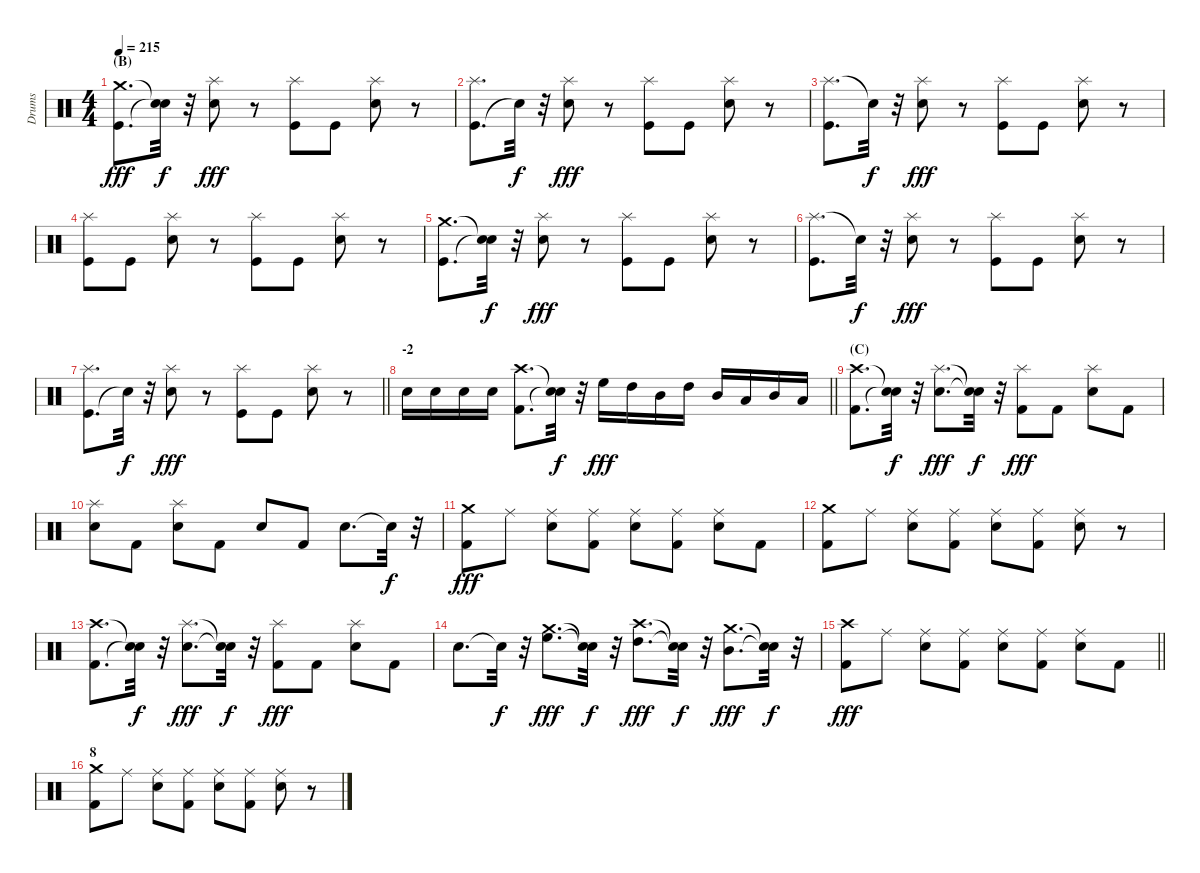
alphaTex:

\track ("Drums" "Drums") {instrument percussion}
\staff {score}
\articulation defaults
\ts (4 4)
\section ("" "(B)")
\tempo 215
\clef neutral
\ks c
("Kick (hit)" "Crash medium (hit)").8{d dy fff} ("Snare (hit)"{t} "Snare (hit)"{t}).32{dy f} r.32 ("Electric Snare (hit)" "Splash (hit)").8{dy fff} r.8 ("Splash (hit)" "Kick (hit)").8 "Kick (hit)".8 ("Electric Snare (hit)" "Splash (hit)").8 r.8 |
("Kick (hit)" "Splash (hit)").8{d} "Snare (hit)"{t}.32{dy f} r.32 ("Splash (hit)" "Electric Snare (hit)").8{dy fff} r.8 ("Kick (hit)" "Splash (hit)").8 "Kick (hit)".8 ("Splash (hit)" "Electric Snare (hit)").8 r.8 |
("Splash (hit)" "Kick (hit)").8{d} "Snare (hit)"{t}.32{dy f} r.32 ("Splash (hit)" "Electric Snare (hit)").8{dy fff} r.8 ("Kick (hit)" "Splash (hit)").8 "Kick (hit)".8 ("Splash (hit)" "Electric Snare (hit)").8 r.8 |
("Splash (hit)" "Kick (hit)").8 "Kick (hit)".8 ("Electric Snare (hit)" "Splash (hit)").8 r.8 ("Splash (hit)" "Kick (hit)").8 "Kick (hit)".8 ("Electric Snare (hit)" "Splash (hit)").8 r.8 |
("Crash medium (hit)" "Kick (hit)").8{d} ("Snare (hit)"{t} "Snare (hit)"{t}).32{dy f} r.32 ("Electric Snare (hit)" "Splash (hit)").8{dy fff} r.8 ("Kick (hit)" "Splash (hit)").8 "Kick (hit)".8 ("Splash (hit)" "Electric Snare (hit)").8 r.8 |
("Splash (hit)" "Kick (hit)").8{d} "Snare (hit)"{t}.32{dy f} r.32 ("Splash (hit)" "Electric Snare (hit)").8{dy fff} r.8 ("Kick (hit)" "Splash (hit)").8 "Kick (hit)".8 ("Electric Snare (hit)" "Splash (hit)").8 r.8 |
\barLineRight lightlight
("Kick (hit)" "Splash (hit)").8{d} "Snare (hit)"{t}.32{dy f} r.32 ("Electric Snare (hit)" "Splash (hit)").8{dy fff} r.8 ("Kick (hit)" "Splash (hit)").8 "Kick (hit)".8 ("Electric Snare (hit)" "Splash (hit)").8 r.8 |
\section ("" "-2")
\barLineRight lightlight "Electric Snare (hit)".16 "Electric Snare (hit)".16 "Electric Snare (hit)".16 "Electric Snare (hit)".16
("Crash high (hit)" "Kick (hit) 2").8{d} ("Snare (hit)"{t} "Snare (hit)"{t}).32{dy f} r.32 "High Floor Tom (hit)".16{dy fff} "High Tom (hit)".16 "Mid Tom (hit)".16 "High Tom (hit)".16 "Mid Tom (hit)".16 "Low Tom (hit)".16 "Mid Tom (hit)".16 "Low Tom (hit)".16 |
\section ("" "(C)")
("Crash high (hit)" "Kick (hit) 2").8{d} ("Snare (hit)"{t} "Snare (hit)"{t}).32{dy f} r.32 ("Electric Snare (hit)" "Splash (hit)").8{d dy fff} ("Snare (hit)"{t} "Snare (hit)"{t}).32{dy f} r.32 ("Splash (hit)" "Kick (hit) 2").8{dy fff} "Kick (hit) 2".8 ("Electric Snare (hit)" "Splash (hit)").8 "Kick (hit) 2".8 |
("Electric Snare (hit)" "Splash (hit)").8 "Kick (hit) 2".8 ("Electric Snare (hit)" "Splash (hit)").8 "Kick (hit) 2".8 "Electric Snare (hit)".8 "Kick (hit) 2".8 "Electric Snare (hit)".8{d} "Snare (hit)"{t}.32{dy f} r.32 |
("Kick (hit) 2" "Crash medium (hit)").8{dy fff} "Ride (middle)".8 ("Electric Snare (hit)" "Ride (middle)").8 ("Kick (hit) 2" "Ride (middle)").8 ("Electric Snare (hit)" "Ride (middle)").8 ("Kick (hit) 2" "Ride (middle)").8 ("Electric Snare (hit)" "Ride (middle)").8 "Kick (hit) 2".8 |
("Kick (hit) 2" "Crash medium (hit)").8 "Ride (middle)".8 ("Electric Snare (hit)" "Ride (middle)").8 ("Kick (hit) 2" "Ride (middle)").8 ("Electric Snare (hit)" "Ride (middle)").8 ("Kick (hit) 2" "Ride (middle)").8 ("Electric Snare (hit)" "Ride (middle)").8 r.8 |
("Crash high (hit)" "Kick (hit) 2").8{d} ("Snare (hit)"{t} "Snare (hit)"{t}).32{dy f} r.32 ("Electric Snare (hit)" "Splash (hit)").8{d dy fff} ("Snare (hit)"{t} "Snare (hit)"{t}).32{dy f} r.32 ("Splash (hit)" "Kick (hit) 2").8{dy fff} "Kick (hit) 2".8 ("Electric Snare (hit)" "Splash (hit)").8 "Kick (hit) 2".8 |
"Electric Snare (hit)".8{d} "Snare (hit)"{t}.32{dy f} r.32 ("Crash medium (hit)" "High Floor Tom (hit)").8{d dy fff} ("Snare (hit)"{t} "Snare (hit)"{t}).32{dy f} r.32 ("High Tom (hit)" "Crash high (hit)").8{d dy fff} ("Snare (hit)"{t} "Snare (hit)"{t}).32{dy f} r.32 ("Mid Tom (hit)" "Crash medium (hit)").8{d dy fff} ("Snare (hit)"{t} "Snare (hit)"{t}).32{dy f} r.32 |
\barLineRight lightlight
("Crash high (hit)" "Kick (hit) 2").8{dy fff} "Ride (middle)".8 ("Electric Snare (hit)" "Ride (middle)").8 ("Kick (hit) 2" "Ride (middle)").8 ("Electric Snare (hit)" "Ride (middle)").8 ("Kick (hit) 2" "Ride (middle)").8 ("Electric Snare (hit)" "Ride (middle)").8 "Kick (hit) 2".8 |
\section ("" "8")
("Kick (hit) 2" "Crash medium (hit)").8 "Ride (middle)".8 ("Electric Snare (hit)" "Ride (middle)").8 ("Kick (hit) 2" "Ride (middle)").8 ("Electric Snare (hit)" "Ride (middle)").8 ("Kick (hit) 2" "Ride (middle)").8 ("Electric Snare (hit)" "Ride (middle)").8 r.8
